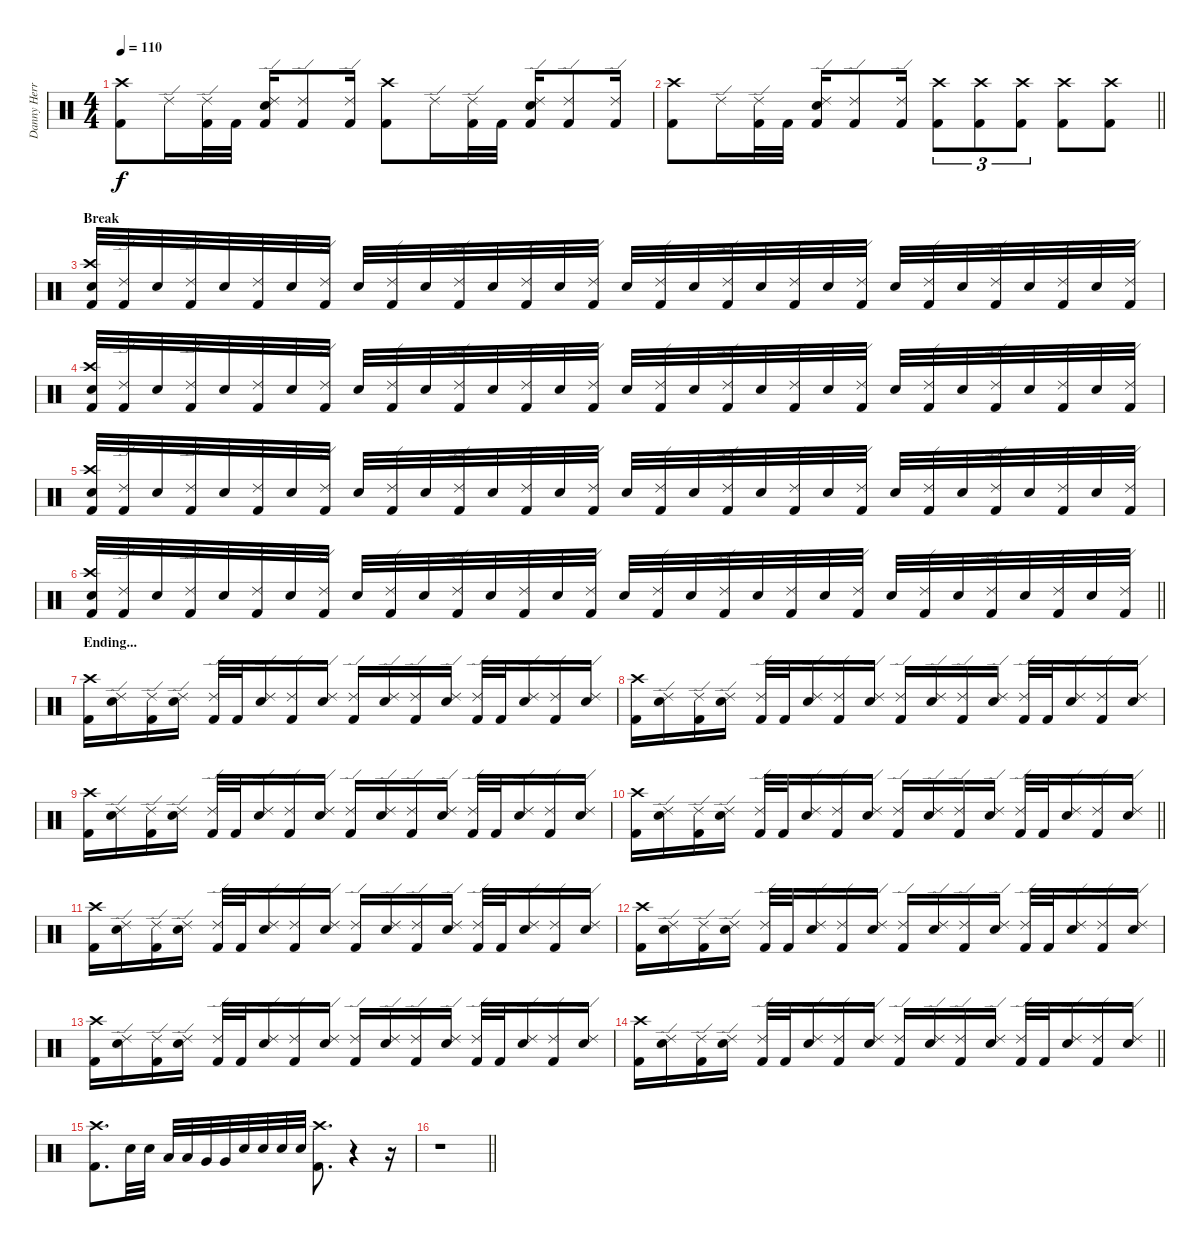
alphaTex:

\track ("Danny Herrera" "Danny Herr") {instrument percussion}
\staff {score}
\articulation defaults
\ts (4 4)
\tempo 110
\clef neutral
\ks c
("Kick (hit) 2" "Crash high (hit)").8{dy f} "Ride (edge) 2".16 ("Kick (hit) 2" "Ride (edge) 2").32 "Kick (hit) 2".32 ("Kick (hit) 2" "Snare (hit) 2" "Ride (edge) 2").16 ("Kick (hit) 2" "Ride (edge) 2").8 ("Kick (hit) 2" "Ride (edge) 2").16 ("Kick (hit) 2" "Crash high (hit)").8 "Ride (edge) 2".16 ("Kick (hit) 2" "Ride (edge) 2").32 "Kick (hit) 2".32 ("Kick (hit) 2" "Snare (hit) 2" "Ride (edge) 2").16 ("Kick (hit) 2" "Ride (edge) 2").8 ("Kick (hit) 2" "Ride (edge) 2").16 |
\barLineRight lightlight
("Kick (hit) 2" "Crash high (hit)").8 "Ride (edge) 2".16 ("Kick (hit) 2" "Ride (edge) 2").32 "Kick (hit) 2".32 ("Kick (hit) 2" "Snare (hit) 2" "Ride (edge) 2").16 ("Kick (hit) 2" "Ride (edge) 2").8 ("Kick (hit) 2" "Ride (edge) 2").16 ("Kick (hit) 2" "Crash high (hit)").8{tu (3 2)} ("Kick (hit) 2" "Crash high (hit)").8{tu (3 2)} ("Kick (hit) 2" "Crash high (hit)").8{tu (3 2)} ("Kick (hit) 2" "Crash high (hit)").8 ("Kick (hit) 2" "Crash high (hit)").8 |
\section ("" "Break")
("Kick (hit) 2" "Snare (hit) 2" "Crash high (hit)").32 ("Kick (hit) 2" "Ride (edge) 2").32 "Snare (hit) 2".32 ("Kick (hit) 2" "Ride (edge) 2").32 "Snare (hit) 2".32 ("Kick (hit) 2" "Ride (edge) 2").32 "Snare (hit) 2".32 ("Kick (hit) 2" "Ride (edge) 2").32 "Snare (hit) 2".32 ("Kick (hit) 2" "Ride (edge) 2").32 "Snare (hit) 2".32 ("Kick (hit) 2" "Ride (edge) 2").32 "Snare (hit) 2".32 ("Kick (hit) 2" "Ride (edge) 2").32 "Snare (hit) 2".32 ("Kick (hit) 2" "Ride (edge) 2").32 "Snare (hit) 2".32 ("Kick (hit) 2" "Ride (edge) 2").32 "Snare (hit) 2".32 ("Kick (hit) 2" "Ride (edge) 2").32 "Snare (hit) 2".32 ("Kick (hit) 2" "Ride (edge) 2").32 "Snare (hit) 2".32 ("Kick (hit) 2" "Ride (edge) 2").32 "Snare (hit) 2".32 ("Kick (hit) 2" "Ride (edge) 2").32 "Snare (hit) 2".32 ("Kick (hit) 2" "Ride (edge) 2").32 "Snare (hit) 2".32 ("Kick (hit) 2" "Ride (edge) 2").32 "Snare (hit) 2".32 ("Kick (hit) 2" "Ride (edge) 2").32 |
("Kick (hit) 2" "Snare (hit) 2" "Crash high (hit)").32 ("Kick (hit) 2" "Ride (edge) 2").32 "Snare (hit) 2".32 ("Kick (hit) 2" "Ride (edge) 2").32 "Snare (hit) 2".32 ("Kick (hit) 2" "Ride (edge) 2").32 "Snare (hit) 2".32 ("Kick (hit) 2" "Ride (edge) 2").32 "Snare (hit) 2".32 ("Kick (hit) 2" "Ride (edge) 2").32 "Snare (hit) 2".32 ("Kick (hit) 2" "Ride (edge) 2").32 "Snare (hit) 2".32 ("Kick (hit) 2" "Ride (edge) 2").32 "Snare (hit) 2".32 ("Kick (hit) 2" "Ride (edge) 2").32 "Snare (hit) 2".32 ("Kick (hit) 2" "Ride (edge) 2").32 "Snare (hit) 2".32 ("Kick (hit) 2" "Ride (edge) 2").32 "Snare (hit) 2".32 ("Kick (hit) 2" "Ride (edge) 2").32 "Snare (hit) 2".32 ("Kick (hit) 2" "Ride (edge) 2").32 "Snare (hit) 2".32 ("Kick (hit) 2" "Ride (edge) 2").32 "Snare (hit) 2".32 ("Kick (hit) 2" "Ride (edge) 2").32 "Snare (hit) 2".32 ("Kick (hit) 2" "Ride (edge) 2").32 "Snare (hit) 2".32 ("Kick (hit) 2" "Ride (edge) 2").32 |
("Kick (hit) 2" "Snare (hit) 2" "Crash high (hit)").32 ("Kick (hit) 2" "Ride (edge) 2").32 "Snare (hit) 2".32 ("Kick (hit) 2" "Ride (edge) 2").32 "Snare (hit) 2".32 ("Kick (hit) 2" "Ride (edge) 2").32 "Snare (hit) 2".32 ("Kick (hit) 2" "Ride (edge) 2").32 "Snare (hit) 2".32 ("Kick (hit) 2" "Ride (edge) 2").32 "Snare (hit) 2".32 ("Kick (hit) 2" "Ride (edge) 2").32 "Snare (hit) 2".32 ("Kick (hit) 2" "Ride (edge) 2").32 "Snare (hit) 2".32 ("Kick (hit) 2" "Ride (edge) 2").32 "Snare (hit) 2".32 ("Kick (hit) 2" "Ride (edge) 2").32 "Snare (hit) 2".32 ("Kick (hit) 2" "Ride (edge) 2").32 "Snare (hit) 2".32 ("Kick (hit) 2" "Ride (edge) 2").32 "Snare (hit) 2".32 ("Kick (hit) 2" "Ride (edge) 2").32 "Snare (hit) 2".32 ("Kick (hit) 2" "Ride (edge) 2").32 "Snare (hit) 2".32 ("Kick (hit) 2" "Ride (edge) 2").32 "Snare (hit) 2".32 ("Kick (hit) 2" "Ride (edge) 2").32 "Snare (hit) 2".32 ("Kick (hit) 2" "Ride (edge) 2").32 |
\barLineRight lightlight
("Kick (hit) 2" "Snare (hit) 2" "Crash high (hit)").32 ("Kick (hit) 2" "Ride (edge) 2").32 "Snare (hit) 2".32 ("Kick (hit) 2" "Ride (edge) 2").32 "Snare (hit) 2".32 ("Kick (hit) 2" "Ride (edge) 2").32 "Snare (hit) 2".32 ("Kick (hit) 2" "Ride (edge) 2").32 "Snare (hit) 2".32 ("Kick (hit) 2" "Ride (edge) 2").32 "Snare (hit) 2".32 ("Kick (hit) 2" "Ride (edge) 2").32 "Snare (hit) 2".32 ("Kick (hit) 2" "Ride (edge) 2").32 "Snare (hit) 2".32 ("Kick (hit) 2" "Ride (edge) 2").32 "Snare (hit) 2".32 ("Kick (hit) 2" "Ride (edge) 2").32 "Snare (hit) 2".32 ("Kick (hit) 2" "Ride (edge) 2").32 "Snare (hit) 2".32 ("Kick (hit) 2" "Ride (edge) 2").32 "Snare (hit) 2".32 ("Kick (hit) 2" "Ride (edge) 2").32 "Snare (hit) 2".32 ("Kick (hit) 2" "Ride (edge) 2").32 "Snare (hit) 2".32 ("Kick (hit) 2" "Ride (edge) 2").32 "Snare (hit) 2".32 ("Kick (hit) 2" "Ride (edge) 2").32 "Snare (hit) 2".32 ("Kick (hit) 2" "Ride (edge) 2").32 |
\section ("" "Ending...")
("Kick (hit) 2" "Crash high (hit)").16 ("Snare (hit) 2" "Ride (edge) 2").16 ("Kick (hit) 2" "Ride (edge) 2").16 ("Snare (hit) 2" "Ride (edge) 2").16 ("Kick (hit) 2" "Ride (edge) 2").32 "Kick (hit) 2".32 ("Snare (hit) 2" "Ride (edge) 2").16 ("Kick (hit) 2" "Ride (edge) 2").16 ("Snare (hit) 2" "Ride (edge) 2").16 ("Kick (hit) 2" "Ride (edge) 2").16 ("Snare (hit) 2" "Ride (edge) 2").16 ("Kick (hit) 2" "Ride (edge) 2").16 ("Snare (hit) 2" "Ride (edge) 2").16 ("Kick (hit) 2" "Ride (edge) 2").32 "Kick (hit) 2".32 ("Snare (hit) 2" "Ride (edge) 2").16 ("Kick (hit) 2" "Ride (edge) 2").16 ("Snare (hit) 2" "Ride (edge) 2").16 |
("Kick (hit) 2" "Crash high (hit)").16 ("Snare (hit) 2" "Ride (edge) 2").16 ("Kick (hit) 2" "Ride (edge) 2").16 ("Snare (hit) 2" "Ride (edge) 2").16 ("Kick (hit) 2" "Ride (edge) 2").32 "Kick (hit) 2".32 ("Snare (hit) 2" "Ride (edge) 2").16 ("Kick (hit) 2" "Ride (edge) 2").16 ("Snare (hit) 2" "Ride (edge) 2").16 ("Kick (hit) 2" "Ride (edge) 2").16 ("Snare (hit) 2" "Ride (edge) 2").16 ("Kick (hit) 2" "Ride (edge) 2").16 ("Snare (hit) 2" "Ride (edge) 2").16 ("Kick (hit) 2" "Ride (edge) 2").32 "Kick (hit) 2".32 ("Snare (hit) 2" "Ride (edge) 2").16 ("Kick (hit) 2" "Ride (edge) 2").16 ("Snare (hit) 2" "Ride (edge) 2").16 |
("Kick (hit) 2" "Crash high (hit)").16 ("Snare (hit) 2" "Ride (edge) 2").16 ("Kick (hit) 2" "Ride (edge) 2").16 ("Snare (hit) 2" "Ride (edge) 2").16 ("Kick (hit) 2" "Ride (edge) 2").32 "Kick (hit) 2".32 ("Snare (hit) 2" "Ride (edge) 2").16 ("Kick (hit) 2" "Ride (edge) 2").16 ("Snare (hit) 2" "Ride (edge) 2").16 ("Kick (hit) 2" "Ride (edge) 2").16 ("Snare (hit) 2" "Ride (edge) 2").16 ("Kick (hit) 2" "Ride (edge) 2").16 ("Snare (hit) 2" "Ride (edge) 2").16 ("Kick (hit) 2" "Ride (edge) 2").32 "Kick (hit) 2".32 ("Snare (hit) 2" "Ride (edge) 2").16 ("Kick (hit) 2" "Ride (edge) 2").16 ("Snare (hit) 2" "Ride (edge) 2").16 |
\barLineRight lightlight
("Kick (hit) 2" "Crash high (hit)").16 ("Snare (hit) 2" "Ride (edge) 2").16 ("Kick (hit) 2" "Ride (edge) 2").16 ("Snare (hit) 2" "Ride (edge) 2").16 ("Kick (hit) 2" "Ride (edge) 2").32 "Kick (hit) 2".32 ("Snare (hit) 2" "Ride (edge) 2").16 ("Kick (hit) 2" "Ride (edge) 2").16 ("Snare (hit) 2" "Ride (edge) 2").16 ("Kick (hit) 2" "Ride (edge) 2").16 ("Snare (hit) 2" "Ride (edge) 2").16 ("Kick (hit) 2" "Ride (edge) 2").16 ("Snare (hit) 2" "Ride (edge) 2").16 ("Kick (hit) 2" "Ride (edge) 2").32 "Kick (hit) 2".32 ("Snare (hit) 2" "Ride (edge) 2").16 ("Kick (hit) 2" "Ride (edge) 2").16 ("Snare (hit) 2" "Ride (edge) 2").16 |
("Kick (hit) 2" "Crash high (hit)").16 ("Snare (hit) 2" "Ride (edge) 2").16 ("Kick (hit) 2" "Ride (edge) 2").16 ("Snare (hit) 2" "Ride (edge) 2").16 ("Kick (hit) 2" "Ride (edge) 2").32 "Kick (hit) 2".32 ("Snare (hit) 2" "Ride (edge) 2").16 ("Kick (hit) 2" "Ride (edge) 2").16 ("Snare (hit) 2" "Ride (edge) 2").16 ("Kick (hit) 2" "Ride (edge) 2").16 ("Snare (hit) 2" "Ride (edge) 2").16 ("Kick (hit) 2" "Ride (edge) 2").16 ("Snare (hit) 2" "Ride (edge) 2").16 ("Kick (hit) 2" "Ride (edge) 2").32 "Kick (hit) 2".32 ("Snare (hit) 2" "Ride (edge) 2").16 ("Kick (hit) 2" "Ride (edge) 2").16 ("Snare (hit) 2" "Ride (edge) 2").16 |
("Kick (hit) 2" "Crash high (hit)").16 ("Snare (hit) 2" "Ride (edge) 2").16 ("Kick (hit) 2" "Ride (edge) 2").16 ("Snare (hit) 2" "Ride (edge) 2").16 ("Kick (hit) 2" "Ride (edge) 2").32 "Kick (hit) 2".32 ("Snare (hit) 2" "Ride (edge) 2").16 ("Kick (hit) 2" "Ride (edge) 2").16 ("Snare (hit) 2" "Ride (edge) 2").16 ("Kick (hit) 2" "Ride (edge) 2").16 ("Snare (hit) 2" "Ride (edge) 2").16 ("Kick (hit) 2" "Ride (edge) 2").16 ("Snare (hit) 2" "Ride (edge) 2").16 ("Kick (hit) 2" "Ride (edge) 2").32 "Kick (hit) 2".32 ("Snare (hit) 2" "Ride (edge) 2").16 ("Kick (hit) 2" "Ride (edge) 2").16 ("Snare (hit) 2" "Ride (edge) 2").16 |
("Kick (hit) 2" "Crash high (hit)").16 ("Snare (hit) 2" "Ride (edge) 2").16 ("Kick (hit) 2" "Ride (edge) 2").16 ("Snare (hit) 2" "Ride (edge) 2").16 ("Kick (hit) 2" "Ride (edge) 2").32 "Kick (hit) 2".32 ("Snare (hit) 2" "Ride (edge) 2").16 ("Kick (hit) 2" "Ride (edge) 2").16 ("Snare (hit) 2" "Ride (edge) 2").16 ("Kick (hit) 2" "Ride (edge) 2").16 ("Snare (hit) 2" "Ride (edge) 2").16 ("Kick (hit) 2" "Ride (edge) 2").16 ("Snare (hit) 2" "Ride (edge) 2").16 ("Kick (hit) 2" "Ride (edge) 2").32 "Kick (hit) 2".32 ("Snare (hit) 2" "Ride (edge) 2").16 ("Kick (hit) 2" "Ride (edge) 2").16 ("Snare (hit) 2" "Ride (edge) 2").16 |
\barLineRight lightlight
("Kick (hit) 2" "Crash high (hit)").16 ("Snare (hit) 2" "Ride (edge) 2").16 ("Kick (hit) 2" "Ride (edge) 2").16 ("Snare (hit) 2" "Ride (edge) 2").16 ("Kick (hit) 2" "Ride (edge) 2").32 "Kick (hit) 2".32 ("Snare (hit) 2" "Ride (edge) 2").16 ("Kick (hit) 2" "Ride (edge) 2").16 ("Snare (hit) 2" "Ride (edge) 2").16 ("Kick (hit) 2" "Ride (edge) 2").16 ("Snare (hit) 2" "Ride (edge) 2").16 ("Kick (hit) 2" "Ride (edge) 2").16 ("Snare (hit) 2" "Ride (edge) 2").16 ("Kick (hit) 2" "Ride (edge) 2").32 "Kick (hit) 2".32 ("Snare (hit) 2" "Ride (edge) 2").16 ("Kick (hit) 2" "Ride (edge) 2").16 ("Snare (hit) 2" "Ride (edge) 2").16 |
("Kick (hit) 2" "Crash high (hit)").8{d} "Snare (hit) 2".32 "Snare (hit) 2".32 "Low Tom (hit)".32 "Low Tom (hit)".32 "Very Low Tom (hit)".32 "Very Low Tom (hit)".32 "Snare (hit) 2".32 "Snare (hit) 2".32 "Snare (hit) 2".32 "Snare (hit) 2".32 ("Kick (hit) 2" "Crash high (hit)").8{d} r.4 r.16 |
\barLineRight lightlight
r.1
